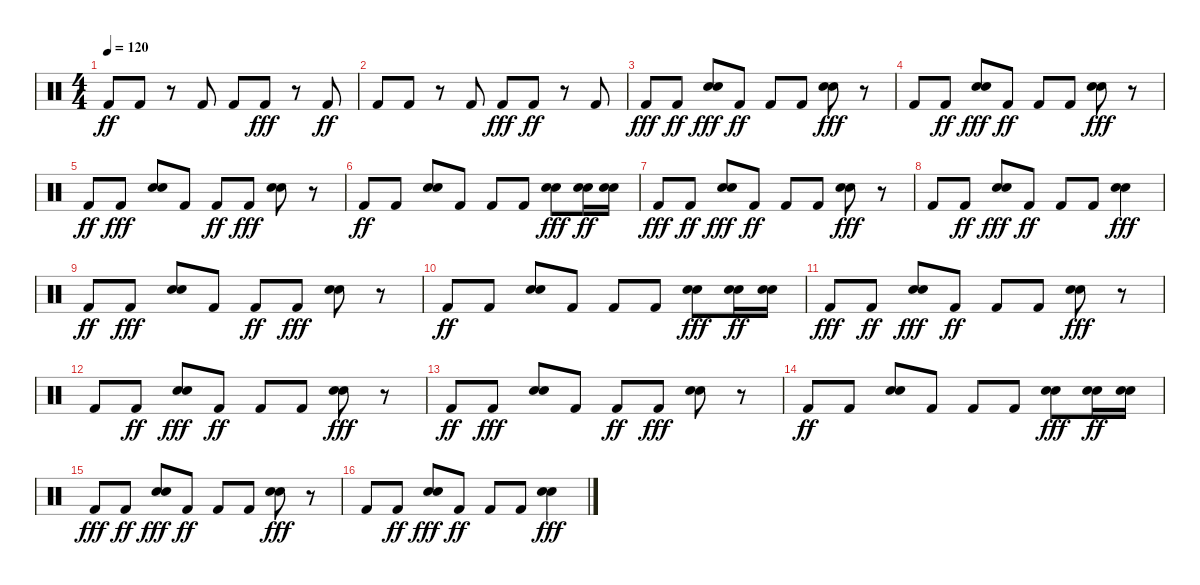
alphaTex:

\track "" {instrument percussion}
\staff {score}
\articulation defaults
\ts (4 4)
\tempo 120
\clef neutral
\ks c "Kick (hit) 2".8{dy ff} "Kick (hit) 2".8
r.8 "Kick (hit) 2".8 "Kick (hit) 2".8 "Kick (hit) 2".8{dy fff} r.8 "Kick (hit) 2".8{dy ff} |
"Kick (hit) 2".8 "Kick (hit) 2".8 r.8 "Kick (hit) 2".8 "Kick (hit) 2".8{dy fff} "Kick (hit) 2".8{dy ff} r.8 "Kick (hit) 2".8 |
"Kick (hit) 2".8{dy fff} "Kick (hit) 2".8{dy ff} ("Electric Snare (hit)" "Snare (hit) 2").8{dy fff} "Kick (hit) 2".8{dy ff} "Kick (hit) 2".8 "Kick (hit) 2".8 ("Electric Snare (hit)" "Snare (hit) 2").8{dy fff} r.8 |
"Kick (hit) 2".8 "Kick (hit) 2".8{dy ff} ("Electric Snare (hit)" "Snare (hit) 2").8{dy fff} "Kick (hit) 2".8{dy ff} "Kick (hit) 2".8 "Kick (hit) 2".8 ("Snare (hit) 2" "Electric Snare (hit)").8{dy fff} r.8 |
"Kick (hit) 2".8{dy ff} "Kick (hit) 2".8{dy fff} ("Electric Snare (hit)" "Snare (hit) 2").8 "Kick (hit) 2".8 "Kick (hit) 2".8{dy ff} "Kick (hit) 2".8{dy fff} ("Snare (hit) 2" "Electric Snare (hit)").8 r.8 |
"Kick (hit) 2".8{dy ff} "Kick (hit) 2".8 ("Snare (hit) 2" "Electric Snare (hit)").8 "Kick (hit) 2".8 "Kick (hit) 2".8 "Kick (hit) 2".8 ("Electric Snare (hit)" "Snare (hit) 2").8{dy fff} ("Electric Snare (hit)" "Snare (hit) 2").16{dy ff} ("Snare (hit) 2" "Electric Snare (hit)").16 |
"Kick (hit) 2".8{dy fff} "Kick (hit) 2".8{dy ff} ("Electric Snare (hit)" "Snare (hit) 2").8{dy fff} "Kick (hit) 2".8{dy ff} "Kick (hit) 2".8 "Kick (hit) 2".8 ("Electric Snare (hit)" "Snare (hit) 2").8{dy fff} r.8 |
"Kick (hit) 2".8 "Kick (hit) 2".8{dy ff} ("Electric Snare (hit)" "Snare (hit) 2").8{dy fff} "Kick (hit) 2".8{dy ff} "Kick (hit) 2".8 "Kick (hit) 2".8 ("Electric Snare (hit)" "Snare (hit) 2").4{dy fff} |
"Kick (hit) 2".8{dy ff} "Kick (hit) 2".8{dy fff} ("Snare (hit) 2" "Electric Snare (hit)").8 "Kick (hit) 2".8 "Kick (hit) 2".8{dy ff} "Kick (hit) 2".8{dy fff} ("Snare (hit) 2" "Electric Snare (hit)").8 r.8 |
"Kick (hit) 2".8{dy ff} "Kick (hit) 2".8 ("Snare (hit) 2" "Electric Snare (hit)").8 "Kick (hit) 2".8 "Kick (hit) 2".8 "Kick (hit) 2".8 ("Electric Snare (hit)" "Snare (hit) 2").8{dy fff} ("Electric Snare (hit)" "Snare (hit) 2").16{dy ff} ("Snare (hit) 2" "Electric Snare (hit)").16 |
"Kick (hit) 2".8{dy fff} "Kick (hit) 2".8{dy ff} ("Electric Snare (hit)" "Snare (hit) 2").8{dy fff} "Kick (hit) 2".8{dy ff} "Kick (hit) 2".8 "Kick (hit) 2".8 ("Electric Snare (hit)" "Snare (hit) 2").8{dy fff} r.8 |
"Kick (hit) 2".8 "Kick (hit) 2".8{dy ff} ("Electric Snare (hit)" "Snare (hit) 2").8{dy fff} "Kick (hit) 2".8{dy ff} "Kick (hit) 2".8 "Kick (hit) 2".8 ("Snare (hit) 2" "Electric Snare (hit)").8{dy fff} r.8 |
"Kick (hit) 2".8{dy ff} "Kick (hit) 2".8{dy fff} ("Electric Snare (hit)" "Snare (hit) 2").8 "Kick (hit) 2".8 "Kick (hit) 2".8{dy ff} "Kick (hit) 2".8{dy fff} ("Snare (hit) 2" "Electric Snare (hit)").8 r.8 |
"Kick (hit) 2".8{dy ff} "Kick (hit) 2".8 ("Snare (hit) 2" "Electric Snare (hit)").8 "Kick (hit) 2".8 "Kick (hit) 2".8 "Kick (hit) 2".8 ("Electric Snare (hit)" "Snare (hit) 2").8{dy fff} ("Electric Snare (hit)" "Snare (hit) 2").16{dy ff} ("Snare (hit) 2" "Electric Snare (hit)").16 |
"Kick (hit) 2".8{dy fff} "Kick (hit) 2".8{dy ff} ("Electric Snare (hit)" "Snare (hit) 2").8{dy fff} "Kick (hit) 2".8{dy ff} "Kick (hit) 2".8 "Kick (hit) 2".8 ("Electric Snare (hit)" "Snare (hit) 2").8{dy fff} r.8 |
"Kick (hit) 2".8 "Kick (hit) 2".8{dy ff} ("Electric Snare (hit)" "Snare (hit) 2").8{dy fff} "Kick (hit) 2".8{dy ff} "Kick (hit) 2".8 "Kick (hit) 2".8 ("Electric Snare (hit)" "Snare (hit) 2").4{dy fff}
